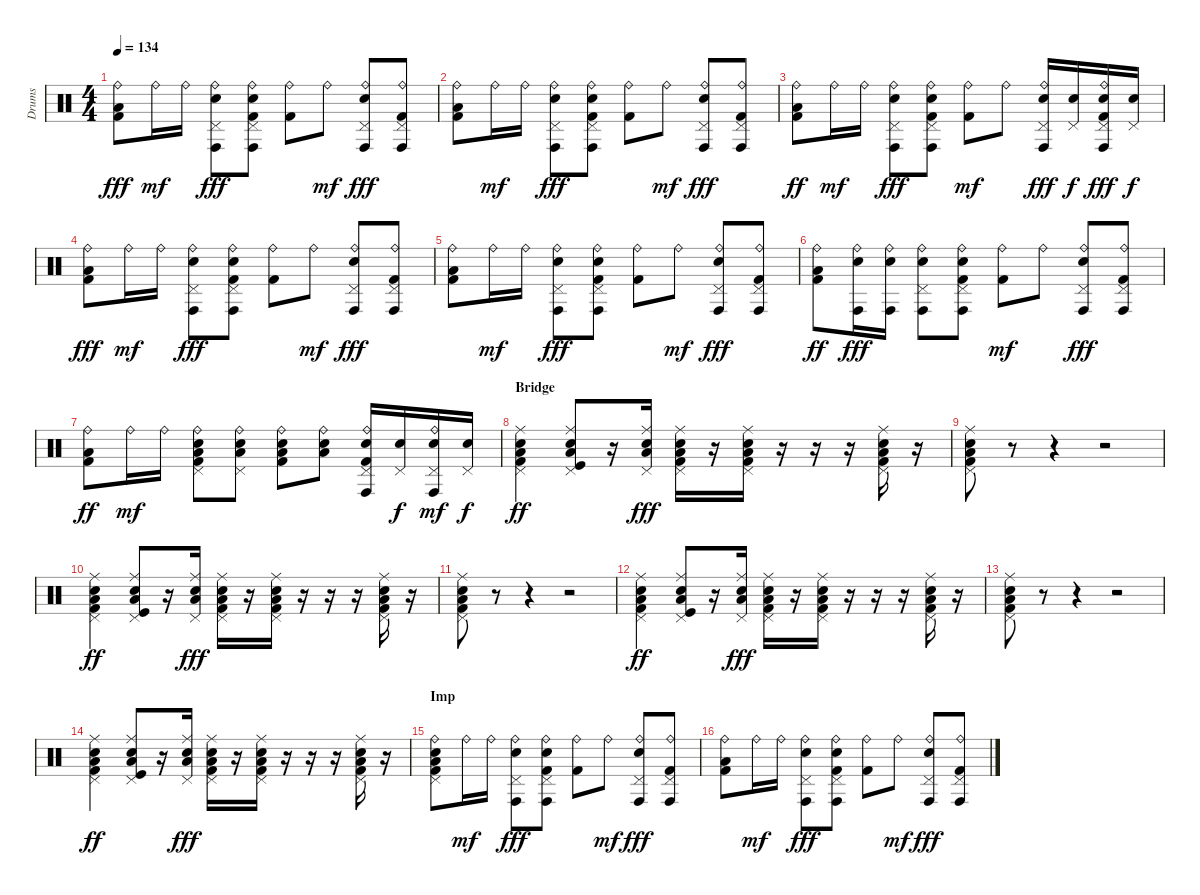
\track ("Drums" "Drums") {instrument percussion}
\staff {score}
\articulation defaults
\ts (4 4)
\tempo 134
\clef neutral
\ks c
("Ride (bell)" "Low Tom (hit)" "Kick (hit) 2").8{dy fff} "Ride (bell)".16{dy mf} "Ride (bell)".16 ("Ride (bell)" "Pedal Hi-Hat (hit)" "Conga high (hit)" "Electric Snare (hit)").8{dy fff} ("Ride (bell)" "Pedal Hi-Hat (hit)" "Conga high (hit)" "Electric Snare (hit)" "Kick (hit) 2").8 ("Ride (bell)" "Kick (hit) 2").8 "Ride (bell)".8{dy mf} ("Ride (bell)" "Pedal Hi-Hat (hit)" "Conga high (hit)" "Electric Snare (hit)").8{dy fff} ("Ride (bell)" "Pedal Hi-Hat (hit)" "Conga high (hit)" "Kick (hit) 2").8 |
("Ride (bell)" "Low Tom (hit)" "Kick (hit) 2").8 "Ride (bell)".16{dy mf} "Ride (bell)".16 ("Ride (bell)" "Pedal Hi-Hat (hit)" "Conga high (hit)" "Electric Snare (hit)").8{dy fff} ("Ride (bell)" "Pedal Hi-Hat (hit)" "Conga high (hit)" "Electric Snare (hit)" "Kick (hit) 2").8 ("Ride (bell)" "Kick (hit) 2").8 "Ride (bell)".8{dy mf} ("Ride (bell)" "Pedal Hi-Hat (hit)" "Conga high (hit)" "Electric Snare (hit)").8{dy fff} ("Ride (bell)" "Pedal Hi-Hat (hit)" "Conga high (hit)" "Kick (hit) 2").8 |
("Ride (bell)" "Low Tom (hit)" "Kick (hit) 2").8{dy ff} "Ride (bell)".16{dy mf} "Ride (bell)".16 ("Ride (bell)" "Pedal Hi-Hat (hit)" "Conga high (hit)" "Electric Snare (hit)").8{dy fff} ("Ride (bell)" "Pedal Hi-Hat (hit)" "Conga high (hit)" "Electric Snare (hit)" "Kick (hit) 2").8 ("Ride (bell)" "Kick (hit) 2").8{dy mf} "Ride (bell)".8 ("Ride (bell)" "Pedal Hi-Hat (hit)" "Conga high (hit)" "Electric Snare (hit)").16{dy fff} ("Pedal Hi-Hat (hit)" "Electric Snare (hit)").16{dy f} ("Ride (bell)" "Pedal Hi-Hat (hit)" "Conga high (hit)" "Electric Snare (hit)" "Kick (hit) 2").16{dy fff} ("Pedal Hi-Hat (hit)" "Electric Snare (hit)").16{dy f} |
("Ride (bell)" "Low Tom (hit)" "Kick (hit) 2").8{dy fff} "Ride (bell)".16{dy mf} "Ride (bell)".16 ("Ride (bell)" "Pedal Hi-Hat (hit)" "Conga high (hit)" "Electric Snare (hit)").8{dy fff} ("Ride (bell)" "Pedal Hi-Hat (hit)" "Conga high (hit)" "Electric Snare (hit)" "Kick (hit) 2").8 ("Ride (bell)" "Kick (hit) 2").8 "Ride (bell)".8{dy mf} ("Ride (bell)" "Pedal Hi-Hat (hit)" "Conga high (hit)" "Electric Snare (hit)").8{dy fff} ("Ride (bell)" "Pedal Hi-Hat (hit)" "Conga high (hit)" "Kick (hit) 2").8 |
("Ride (bell)" "Low Tom (hit)" "Kick (hit) 2").8 "Ride (bell)".16{dy mf} "Ride (bell)".16 ("Ride (bell)" "Pedal Hi-Hat (hit)" "Conga high (hit)" "Electric Snare (hit)").8{dy fff} ("Ride (bell)" "Pedal Hi-Hat (hit)" "Conga high (hit)" "Electric Snare (hit)" "Kick (hit) 2").8 ("Ride (bell)" "Kick (hit) 2").8 "Ride (bell)".8{dy mf} ("Ride (bell)" "Pedal Hi-Hat (hit)" "Conga high (hit)" "Electric Snare (hit)").8{dy fff} ("Ride (bell)" "Pedal Hi-Hat (hit)" "Conga high (hit)" "Kick (hit) 2").8 |
("Ride (bell)" "Low Tom (hit)" "Kick (hit) 2").8{dy ff} ("Ride (bell)" "Conga high (hit)" "Electric Snare (hit)").16{dy fff} ("Ride (bell)" "Conga high (hit)" "Electric Snare (hit)").16 ("Ride (bell)" "Pedal Hi-Hat (hit)" "Conga high (hit)" "Electric Snare (hit)").8 ("Ride (bell)" "Pedal Hi-Hat (hit)" "Conga high (hit)" "Electric Snare (hit)" "Kick (hit) 2").8 ("Ride (bell)" "Kick (hit) 2").8{dy mf} "Ride (bell)".8 ("Ride (bell)" "Pedal Hi-Hat (hit)" "Conga high (hit)" "Electric Snare (hit)").8{dy fff} ("Ride (bell)" "Pedal Hi-Hat (hit)" "Conga high (hit)" "Kick (hit) 2").8 |
("Ride (bell)" "Low Tom (hit)" "Kick (hit) 2").8{dy ff} "Ride (bell)".16{dy mf} "Ride (bell)".16 ("Ride (bell)" "Pedal Hi-Hat (hit)" "Low Floor Tom (hit)" "Electric Snare (hit)" "Kick (hit) 2").8 ("Ride (bell)" "Pedal Hi-Hat (hit)" "Low Floor Tom (hit)" "Electric Snare (hit)").8 ("Ride (bell)" "Low Floor Tom (hit)" "Electric Snare (hit)" "Kick (hit) 2").8 ("Ride (bell)" "Low Floor Tom (hit)" "Electric Snare (hit)").8 ("Ride (bell)" "Pedal Hi-Hat (hit)" "Conga high (hit)" "Electric Snare (hit)" "Kick (hit) 2").16 ("Pedal Hi-Hat (hit)" "Electric Snare (hit)").16{dy f} ("Ride (bell)" "Pedal Hi-Hat (hit)" "Conga high (hit)" "Electric Snare (hit)").16{dy mf} ("Pedal Hi-Hat (hit)" "Electric Snare (hit)").16{dy f} |
\section ("" "Bridge")
("Ride (middle)" "Pedal Hi-Hat (hit)" "Low Floor Tom (hit)" "Electric Snare (hit)" "Kick (hit) 2").4{dy ff} ("Ride (middle)" "Pedal Hi-Hat (hit)" "Low Floor Tom (hit)" "Electric Snare (hit)" "Kick (hit)").8 r.16 ("Ride (middle)" "Pedal Hi-Hat (hit)" "Low Floor Tom (hit)" "Electric Snare (hit)").16{dy fff} ("Ride (middle)" "Pedal Hi-Hat (hit)" "Low Floor Tom (hit)" "Electric Snare (hit)" "Kick (hit) 2").16 r.16 ("Ride (middle)" "Pedal Hi-Hat (hit)" "Low Floor Tom (hit)" "Electric Snare (hit)" "Kick (hit) 2").16 r.16 r.16 r.16 ("Ride (middle)" "Pedal Hi-Hat (hit)" "Low Floor Tom (hit)" "Electric Snare (hit)" "Kick (hit) 2").16 r.16 |
("Ride (middle)" "Pedal Hi-Hat (hit)" "Low Floor Tom (hit)" "Electric Snare (hit)" "Kick (hit) 2").8 r.8 r.4 r.2 |
("Ride (middle)" "Pedal Hi-Hat (hit)" "Low Floor Tom (hit)" "Electric Snare (hit)" "Kick (hit) 2").4{dy ff} ("Ride (middle)" "Pedal Hi-Hat (hit)" "Low Floor Tom (hit)" "Electric Snare (hit)" "Kick (hit)").8 r.16 ("Ride (middle)" "Pedal Hi-Hat (hit)" "Low Floor Tom (hit)" "Electric Snare (hit)").16{dy fff} ("Ride (middle)" "Pedal Hi-Hat (hit)" "Low Floor Tom (hit)" "Electric Snare (hit)" "Kick (hit) 2").16 r.16 ("Ride (middle)" "Pedal Hi-Hat (hit)" "Low Floor Tom (hit)" "Electric Snare (hit)" "Kick (hit) 2").16 r.16 r.16 r.16 ("Ride (middle)" "Pedal Hi-Hat (hit)" "Low Floor Tom (hit)" "Electric Snare (hit)" "Kick (hit) 2").16 r.16 |
("Ride (middle)" "Pedal Hi-Hat (hit)" "Low Floor Tom (hit)" "Electric Snare (hit)" "Kick (hit) 2").8 r.8 r.4 r.2 |
("Ride (middle)" "Pedal Hi-Hat (hit)" "Low Floor Tom (hit)" "Electric Snare (hit)" "Kick (hit) 2").4{dy ff} ("Ride (middle)" "Pedal Hi-Hat (hit)" "Low Floor Tom (hit)" "Electric Snare (hit)" "Kick (hit)").8 r.16 ("Ride (middle)" "Pedal Hi-Hat (hit)" "Low Floor Tom (hit)" "Electric Snare (hit)").16{dy fff} ("Ride (middle)" "Pedal Hi-Hat (hit)" "Low Floor Tom (hit)" "Electric Snare (hit)" "Kick (hit) 2").16 r.16 ("Ride (middle)" "Pedal Hi-Hat (hit)" "Low Floor Tom (hit)" "Electric Snare (hit)" "Kick (hit) 2").16 r.16 r.16 r.16 ("Ride (middle)" "Pedal Hi-Hat (hit)" "Low Floor Tom (hit)" "Electric Snare (hit)" "Kick (hit) 2").16 r.16 |
("Ride (middle)" "Pedal Hi-Hat (hit)" "Low Floor Tom (hit)" "Electric Snare (hit)" "Kick (hit) 2").8 r.8 r.4 r.2 |
("Ride (middle)" "Pedal Hi-Hat (hit)" "Low Floor Tom (hit)" "Electric Snare (hit)" "Kick (hit) 2").4{dy ff} ("Ride (middle)" "Pedal Hi-Hat (hit)" "Low Floor Tom (hit)" "Electric Snare (hit)" "Kick (hit)").8 r.16 ("Ride (middle)" "Pedal Hi-Hat (hit)" "Low Floor Tom (hit)" "Electric Snare (hit)").16{dy fff} ("Ride (middle)" "Pedal Hi-Hat (hit)" "Low Floor Tom (hit)" "Electric Snare (hit)" "Kick (hit) 2").16 r.16 ("Ride (middle)" "Pedal Hi-Hat (hit)" "Low Floor Tom (hit)" "Electric Snare (hit)" "Kick (hit) 2").16 r.16 r.16 r.16 ("Ride (middle)" "Pedal Hi-Hat (hit)" "Low Floor Tom (hit)" "Electric Snare (hit)" "Kick (hit) 2").16 r.16 |
\section ("" "Imp")
("Ride (bell)" "Pedal Hi-Hat (hit)" "Low Floor Tom (hit)" "Electric Snare (hit)" "Kick (hit) 2").8 "Ride (bell)".16{dy mf} "Ride (bell)".16 ("Ride (bell)" "Pedal Hi-Hat (hit)" "Conga high (hit)" "Electric Snare (hit)").8{dy fff} ("Ride (bell)" "Pedal Hi-Hat (hit)" "Conga high (hit)" "Electric Snare (hit)" "Kick (hit) 2").8 ("Ride (bell)" "Kick (hit) 2").8 "Ride (bell)".8{dy mf} ("Ride (bell)" "Pedal Hi-Hat (hit)" "Conga high (hit)" "Electric Snare (hit)").8{dy fff} ("Ride (bell)" "Pedal Hi-Hat (hit)" "Conga high (hit)" "Kick (hit) 2").8 |
("Ride (bell)" "Low Tom (hit)" "Kick (hit) 2").8 "Ride (bell)".16{dy mf} "Ride (bell)".16 ("Ride (bell)" "Pedal Hi-Hat (hit)" "Conga high (hit)" "Electric Snare (hit)").8{dy fff} ("Ride (bell)" "Pedal Hi-Hat (hit)" "Conga high (hit)" "Electric Snare (hit)" "Kick (hit) 2").8 ("Ride (bell)" "Kick (hit) 2").8 "Ride (bell)".8{dy mf} ("Ride (bell)" "Pedal Hi-Hat (hit)" "Conga high (hit)" "Electric Snare (hit)").8{dy fff} ("Ride (bell)" "Pedal Hi-Hat (hit)" "Conga high (hit)" "Kick (hit) 2").8
